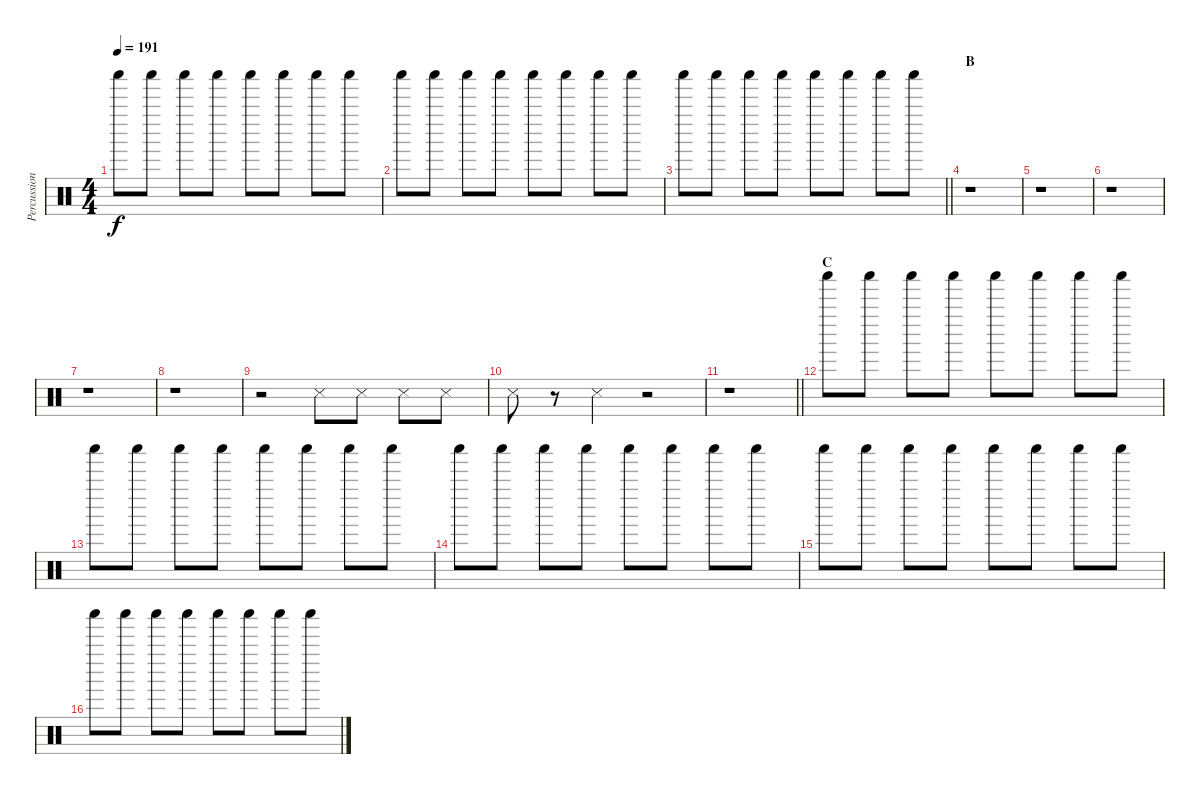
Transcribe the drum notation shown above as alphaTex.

\track ("Percussion" "Percussion") {instrument percussion}
\staff {score}
\articulation defaults
\ts (4 4)
\tempo 191
\clef neutral
\ks c "Shaker (hit)".8{dy f} "Shaker (hit)".8 "Shaker (hit)".8 "Shaker (hit)".8 "Shaker (hit)".8 "Shaker (hit)".8 "Shaker (hit)".8 "Shaker (hit)".8
|
"Shaker (hit)".8 "Shaker (hit)".8 "Shaker (hit)".8 "Shaker (hit)".8 "Shaker (hit)".8 "Shaker (hit)".8 "Shaker (hit)".8 "Shaker (hit)".8 |
\barLineRight lightlight "Shaker (hit)".8 "Shaker (hit)".8 "Shaker (hit)".8 "Shaker (hit)".8 "Shaker (hit)".8 "Shaker (hit)".8 "Shaker (hit)".8 "Shaker (hit)".8
|
\section ("" "B")
r.1 |
r.1 |
r.1 |
r.1 |
r.1 |
r.2 "Snare (side stick) 3".8 "Snare (side stick) 3".8 "Snare (side stick) 3".8 "Snare (side stick) 3".8 |
"Snare (side stick) 3".8 r.8 "Snare (side stick) 3".4 r.2 |
\barLineRight lightlight
r.1 |
\section ("" "C")
"Shaker (hit)".8 "Shaker (hit)".8 "Shaker (hit)".8 "Shaker (hit)".8 "Shaker (hit)".8 "Shaker (hit)".8 "Shaker (hit)".8 "Shaker (hit)".8 |
"Shaker (hit)".8 "Shaker (hit)".8 "Shaker (hit)".8 "Shaker (hit)".8 "Shaker (hit)".8 "Shaker (hit)".8 "Shaker (hit)".8 "Shaker (hit)".8 |
"Shaker (hit)".8 "Shaker (hit)".8 "Shaker (hit)".8 "Shaker (hit)".8 "Shaker (hit)".8 "Shaker (hit)".8 "Shaker (hit)".8 "Shaker (hit)".8 |
"Shaker (hit)".8 "Shaker (hit)".8 "Shaker (hit)".8 "Shaker (hit)".8 "Shaker (hit)".8 "Shaker (hit)".8 "Shaker (hit)".8 "Shaker (hit)".8 |
"Shaker (hit)".8 "Shaker (hit)".8 "Shaker (hit)".8 "Shaker (hit)".8 "Shaker (hit)".8 "Shaker (hit)".8 "Shaker (hit)".8 "Shaker (hit)".8
